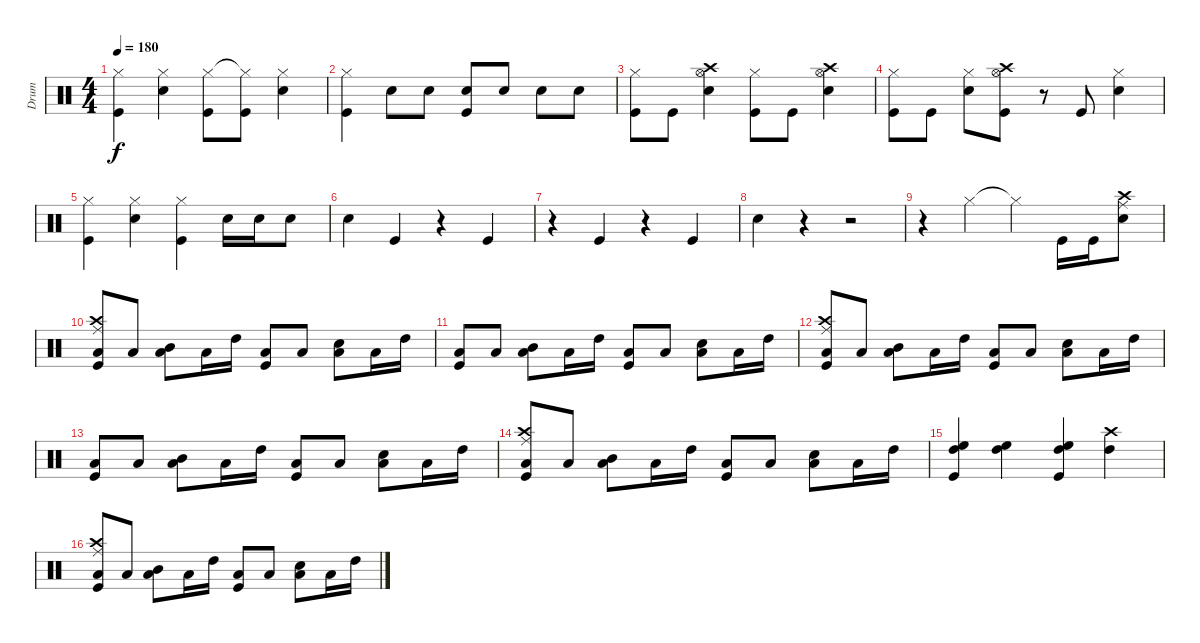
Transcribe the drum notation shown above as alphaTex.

\track ("Drum" "Drum") {instrument percussion}
\staff {score}
\articulation defaults
\ts (4 4)
\tempo 180
\clef neutral
\ks c
("Hi-Hat (closed)" "Kick (hit)").4{dy f} ("Hi-Hat (closed)" "Snare (hit) 2").4 ("Hi-Hat (closed)" "Kick (hit)").8 ("Hi-Hat (closed)"{t} "Kick (hit)").8 ("Hi-Hat (closed)" "Snare (hit) 2").4 |
("Hi-Hat (closed)" "Kick (hit)").4 "Snare (hit) 2".8 "Snare (hit) 2".8 ("Snare (hit) 2" "Kick (hit)").8 "Snare (hit) 2".8 "Snare (hit) 2".8 "Snare (hit) 2".8 |
("Hi-Hat (closed)" "Kick (hit)").8 "Kick (hit)".8 ("Hi-Hat (open)" "Crash high (hit)" "Snare (hit) 2").4 ("Hi-Hat (closed)" "Kick (hit)").8 "Kick (hit)".8 ("Hi-Hat (open)" "Crash high (hit)" "Snare (hit) 2").4 |
("Hi-Hat (closed)" "Kick (hit)").8 "Kick (hit)".8 ("Hi-Hat (closed)" "Snare (hit) 2").8 ("Hi-Hat (open)" "Crash high (hit)" "Kick (hit)").8 r.8 "Kick (hit)".8 ("Hi-Hat (closed)" "Snare (hit) 2").4 |
("Hi-Hat (closed)" "Kick (hit)").4 ("Hi-Hat (closed)" "Snare (hit) 2").4 ("Hi-Hat (closed)" "Kick (hit)").4 "Snare (hit) 2".16 "Snare (hit) 2".16 "Snare (hit) 2".8 |
"Snare (hit) 2".4 "Kick (hit)".4 r.4 "Kick (hit)".4 |
r.4 "Kick (hit)".4 r.4 "Kick (hit)".4 |
"Snare (hit) 2".4 r.4 r.2 |
r.4 "Hi-Hat (closed)".4 "Hi-Hat (closed)"{t}.4 "Kick (hit)".16 "Kick (hit)".16 ("Ride (middle)" "Crash high (hit)" "Snare (hit) 2").8 |
("Crash high (hit)" "Ride (middle)" "Low Tom (hit)" "Kick (hit)").8 "Low Tom (hit)".8 ("Mid Tom (hit)" "Low Tom (hit)").8 "Low Tom (hit)".16 "High Tom (hit)".16 ("Low Tom (hit)" "Kick (hit)").8 "Low Tom (hit)".8 ("Snare (hit) 2" "Low Tom (hit)").8 "Low Tom (hit)".16 "High Tom (hit)".16 |
("Low Tom (hit)" "Kick (hit)").8 "Low Tom (hit)".8 ("Mid Tom (hit)" "Low Tom (hit)").8 "Low Tom (hit)".16 "High Tom (hit)".16 ("Low Tom (hit)" "Kick (hit)").8 "Low Tom (hit)".8 ("Snare (hit) 2" "Low Tom (hit)").8 "Low Tom (hit)".16 "High Tom (hit)".16 |
("Crash high (hit)" "Ride (middle)" "Low Tom (hit)" "Kick (hit)").8 "Low Tom (hit)".8 ("Mid Tom (hit)" "Low Tom (hit)").8 "Low Tom (hit)".16 "High Tom (hit)".16 ("Low Tom (hit)" "Kick (hit)").8 "Low Tom (hit)".8 ("Snare (hit) 2" "Low Tom (hit)").8 "Low Tom (hit)".16 "High Tom (hit)".16 |
("Low Tom (hit)" "Kick (hit)").8 "Low Tom (hit)".8 ("Mid Tom (hit)" "Low Tom (hit)").8 "Low Tom (hit)".16 "High Tom (hit)".16 ("Low Tom (hit)" "Kick (hit)").8 "Low Tom (hit)".8 ("Snare (hit) 2" "Low Tom (hit)").8 "Low Tom (hit)".16 "High Tom (hit)".16 |
("Crash high (hit)" "Ride (middle)" "Low Tom (hit)" "Kick (hit)").8 "Low Tom (hit)".8 ("Mid Tom (hit)" "Low Tom (hit)").8 "Low Tom (hit)".16 "High Tom (hit)".16 ("Low Tom (hit)" "Kick (hit)").8 "Low Tom (hit)".8 ("Snare (hit) 2" "Low Tom (hit)").8 "Low Tom (hit)".16 "High Tom (hit)".16 |
("High Floor Tom (hit)" "High Tom (hit)" "Kick (hit)").4 ("High Floor Tom (hit)" "High Tom (hit)").4 ("High Floor Tom (hit)" "High Tom (hit)" "Kick (hit)").4 ("Crash high (hit)" "High Tom (hit)").4 |
("Crash high (hit)" "Ride (middle)" "Low Tom (hit)" "Kick (hit)").8 "Low Tom (hit)".8 ("Mid Tom (hit)" "Low Tom (hit)").8 "Low Tom (hit)".16 "High Tom (hit)".16 ("Low Tom (hit)" "Kick (hit)").8 "Low Tom (hit)".8 ("Snare (hit) 2" "Low Tom (hit)").8 "Low Tom (hit)".16 "High Tom (hit)".16
